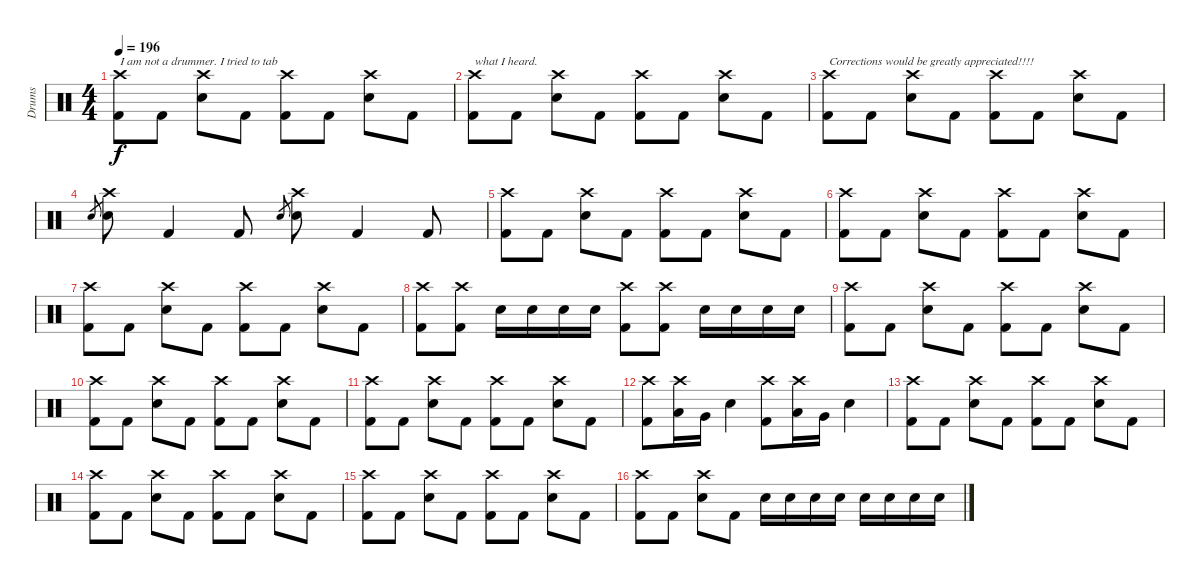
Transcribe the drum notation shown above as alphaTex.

\track ("Drums" "Drums") {instrument percussion}
\staff {score}
\articulation defaults
\ts (4 4)
\tempo 196
\clef neutral
\ks c
("Crash high (hit)" "Kick (hit) 2").8{txt "I am not a drummer. I tried to tab" dy f} "Kick (hit) 2".8 ("Crash high (hit)" "Electric Snare (hit)").8 "Kick (hit) 2".8 ("Crash high (hit)" "Kick (hit) 2").8 "Kick (hit) 2".8 ("Crash high (hit)" "Electric Snare (hit)").8 "Kick (hit) 2".8 |
("Crash high (hit)" "Kick (hit) 2").8{txt "what I heard."} "Kick (hit) 2".8 ("Crash high (hit)" "Electric Snare (hit)").8 "Kick (hit) 2".8 ("Crash high (hit)" "Kick (hit) 2").8 "Kick (hit) 2".8 ("Crash high (hit)" "Electric Snare (hit)").8 "Kick (hit) 2".8 |
("Crash high (hit)" "Kick (hit) 2").8{txt "Corrections would be greatly appreciated!!!!"} "Kick (hit) 2".8 ("Crash high (hit)" "Electric Snare (hit)").8 "Kick (hit) 2".8 ("Crash high (hit)" "Kick (hit) 2").8 "Kick (hit) 2".8 ("Crash high (hit)" "Electric Snare (hit)").8 "Kick (hit) 2".8 |
"Electric Snare (hit)".8{gr} ("Crash high (hit)" "Electric Snare (hit)").8 "Kick (hit) 2".4 "Kick (hit) 2".8 "Electric Snare (hit)".8{gr} ("Crash high (hit)" "Electric Snare (hit)").8 "Kick (hit) 2".4 "Kick (hit) 2".8 |
("Crash high (hit)" "Kick (hit) 2").8 "Kick (hit) 2".8 ("Crash high (hit)" "Electric Snare (hit)").8 "Kick (hit) 2".8 ("Crash high (hit)" "Kick (hit) 2").8 "Kick (hit) 2".8 ("Crash high (hit)" "Electric Snare (hit)").8 "Kick (hit) 2".8 |
("Crash high (hit)" "Kick (hit) 2").8 "Kick (hit) 2".8 ("Crash high (hit)" "Electric Snare (hit)").8 "Kick (hit) 2".8 ("Crash high (hit)" "Kick (hit) 2").8 "Kick (hit) 2".8 ("Crash high (hit)" "Electric Snare (hit)").8 "Kick (hit) 2".8 |
("Crash high (hit)" "Kick (hit) 2").8 "Kick (hit) 2".8 ("Crash high (hit)" "Electric Snare (hit)").8 "Kick (hit) 2".8 ("Crash high (hit)" "Kick (hit) 2").8 "Kick (hit) 2".8 ("Crash high (hit)" "Electric Snare (hit)").8 "Kick (hit) 2".8 |
("Crash high (hit)" "Kick (hit) 2").8 ("Crash high (hit)" "Kick (hit) 2").8 "Electric Snare (hit)".16 "Electric Snare (hit)".16 "Electric Snare (hit)".16 "Electric Snare (hit)".16 ("Crash high (hit)" "Kick (hit) 2").8 ("Crash high (hit)" "Kick (hit) 2").8 "Electric Snare (hit)".16 "Electric Snare (hit)".16 "Electric Snare (hit)".16 "Electric Snare (hit)".16 |
("Crash high (hit)" "Kick (hit) 2").8 "Kick (hit) 2".8 ("Crash high (hit)" "Electric Snare (hit)").8 "Kick (hit) 2".8 ("Crash high (hit)" "Kick (hit) 2").8 "Kick (hit) 2".8 ("Crash high (hit)" "Electric Snare (hit)").8 "Kick (hit) 2".8 |
("Crash high (hit)" "Kick (hit) 2").8 "Kick (hit) 2".8 ("Crash high (hit)" "Electric Snare (hit)").8 "Kick (hit) 2".8 ("Crash high (hit)" "Kick (hit) 2").8 "Kick (hit) 2".8 ("Crash high (hit)" "Electric Snare (hit)").8 "Kick (hit) 2".8 |
("Crash high (hit)" "Kick (hit) 2").8 "Kick (hit) 2".8 ("Crash high (hit)" "Electric Snare (hit)").8 "Kick (hit) 2".8 ("Crash high (hit)" "Kick (hit) 2").8 "Kick (hit) 2".8 ("Crash high (hit)" "Electric Snare (hit)").8 "Kick (hit) 2".8 |
("Crash high (hit)" "Kick (hit) 2").8 ("Crash high (hit)" "Low Tom (hit)").16 "Very Low Tom (hit)".16 "Electric Snare (hit)".4 ("Crash high (hit)" "Kick (hit) 2").8 ("Crash high (hit)" "Low Tom (hit)").16 "Very Low Tom (hit)".16 "Electric Snare (hit)".4 |
("Crash high (hit)" "Kick (hit) 2").8 "Kick (hit) 2".8 ("Crash high (hit)" "Electric Snare (hit)").8 "Kick (hit) 2".8 ("Crash high (hit)" "Kick (hit) 2").8 "Kick (hit) 2".8 ("Crash high (hit)" "Electric Snare (hit)").8 "Kick (hit) 2".8 |
("Crash high (hit)" "Kick (hit) 2").8 "Kick (hit) 2".8 ("Crash high (hit)" "Electric Snare (hit)").8 "Kick (hit) 2".8 ("Crash high (hit)" "Kick (hit) 2").8 "Kick (hit) 2".8 ("Crash high (hit)" "Electric Snare (hit)").8 "Kick (hit) 2".8 |
("Crash high (hit)" "Kick (hit) 2").8 "Kick (hit) 2".8 ("Crash high (hit)" "Electric Snare (hit)").8 "Kick (hit) 2".8 ("Crash high (hit)" "Kick (hit) 2").8 "Kick (hit) 2".8 ("Crash high (hit)" "Electric Snare (hit)").8 "Kick (hit) 2".8 |
("Crash high (hit)" "Kick (hit) 2").8 "Kick (hit) 2".8 ("Crash high (hit)" "Electric Snare (hit)").8 "Kick (hit) 2".8 "Electric Snare (hit)".16 "Electric Snare (hit)".16 "Electric Snare (hit)".16 "Electric Snare (hit)".16 "Electric Snare (hit)".16 "Electric Snare (hit)".16 "Electric Snare (hit)".16 "Electric Snare (hit)".16
